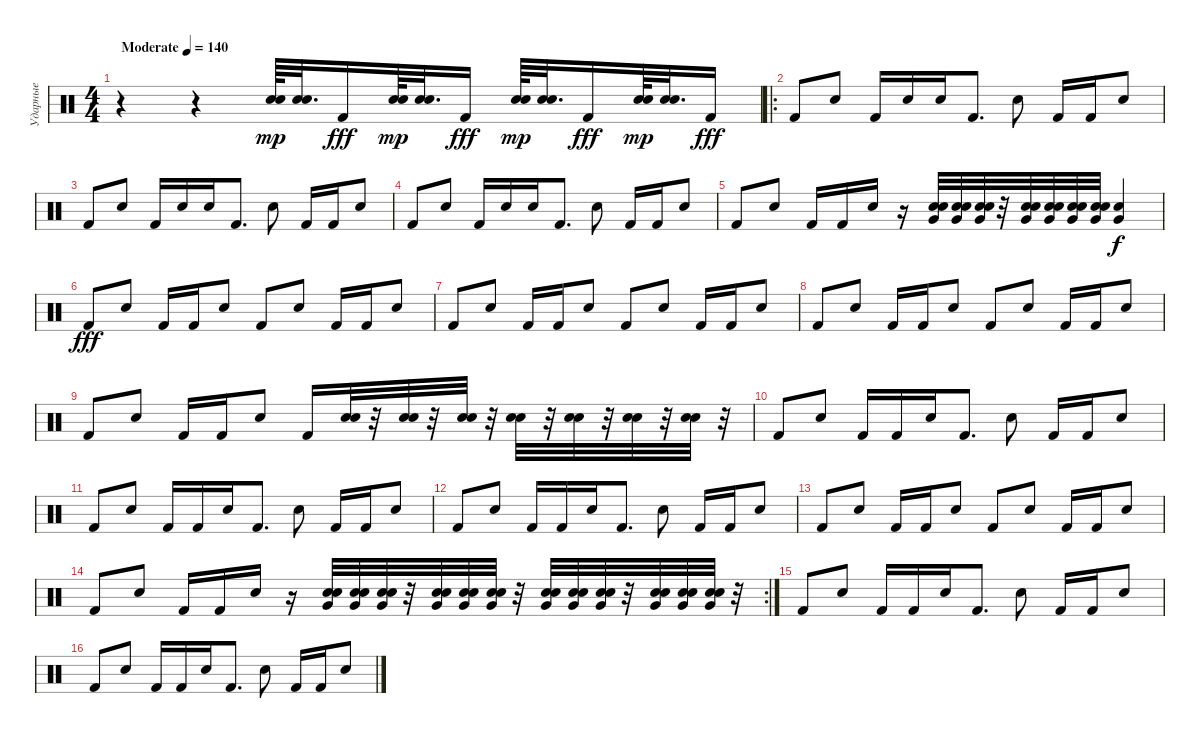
\track ("Ударные" "Ударные") {instrument percussion}
\staff {score}
\articulation defaults
\ts (4 4)
\tempo (140 "Moderate")
\clef neutral
\ks c
r.4{dy mp} r.4 ("Electric Snare (hit)" "Snare (hit) 2").64 ("Electric Snare (hit)" "Snare (hit) 2").32{d} "Kick (hit) 2".16{dy fff} ("Electric Snare (hit)" "Snare (hit) 2").64{dy mp} ("Electric Snare (hit)" "Snare (hit) 2").32{d} "Kick (hit) 2".16{dy fff} ("Electric Snare (hit)" "Snare (hit) 2").64{dy mp} ("Electric Snare (hit)" "Snare (hit) 2").32{d} "Kick (hit) 2".16{dy fff} ("Electric Snare (hit)" "Snare (hit) 2").64{dy mp} ("Electric Snare (hit)" "Snare (hit) 2").32{d} "Kick (hit) 2".16{dy fff} |
\ro "Kick (hit) 2".8 "Electric Snare (hit)".8 "Kick (hit) 2".16 "Electric Snare (hit)".16 "Electric Snare (hit)".16 "Kick (hit) 2".8{d} "Electric Snare (hit)".8 "Kick (hit) 2".16 "Kick (hit) 2".16 "Electric Snare (hit)".8
|
"Kick (hit) 2".8 "Electric Snare (hit)".8 "Kick (hit) 2".16 "Electric Snare (hit)".16 "Electric Snare (hit)".16 "Kick (hit) 2".8{d} "Electric Snare (hit)".8 "Kick (hit) 2".16 "Kick (hit) 2".16 "Electric Snare (hit)".8 |
"Kick (hit) 2".8 "Electric Snare (hit)".8 "Kick (hit) 2".16 "Electric Snare (hit)".16 "Electric Snare (hit)".16 "Kick (hit) 2".8{d} "Electric Snare (hit)".8 "Kick (hit) 2".16 "Kick (hit) 2".16 "Electric Snare (hit)".8 |
"Kick (hit) 2".8 "Electric Snare (hit)".8 "Kick (hit) 2".16 "Kick (hit) 2".16 "Electric Snare (hit)".16 r.16 ("Electric Snare (hit)" "Very Low Tom (hit)" "Snare (hit) 2").32 ("Electric Snare (hit)" "Very Low Tom (hit)" "Snare (hit) 2").32 ("Electric Snare (hit)" "Very Low Tom (hit)" "Snare (hit) 2").32 r.32 ("Electric Snare (hit)" "Very Low Tom (hit)" "Snare (hit) 2").32 ("Electric Snare (hit)" "Very Low Tom (hit)" "Snare (hit) 2").32 ("Electric Snare (hit)" "Very Low Tom (hit)" "Snare (hit) 2").32 ("Electric Snare (hit)" "Very Low Tom (hit)" "Snare (hit) 2").32 ("Very Low Tom (hit)" "Snare (hit) 2").4{dy f} |
"Kick (hit) 2".8{dy fff} "Electric Snare (hit)".8 "Kick (hit) 2".16 "Kick (hit) 2".16 "Electric Snare (hit)".8 "Kick (hit) 2".8 "Electric Snare (hit)".8 "Kick (hit) 2".16 "Kick (hit) 2".16 "Electric Snare (hit)".8 |
"Kick (hit) 2".8 "Electric Snare (hit)".8 "Kick (hit) 2".16 "Kick (hit) 2".16 "Electric Snare (hit)".8 "Kick (hit) 2".8 "Electric Snare (hit)".8 "Kick (hit) 2".16 "Kick (hit) 2".16 "Electric Snare (hit)".8 |
"Kick (hit) 2".8 "Electric Snare (hit)".8 "Kick (hit) 2".16 "Kick (hit) 2".16 "Electric Snare (hit)".8 "Kick (hit) 2".8 "Electric Snare (hit)".8 "Kick (hit) 2".16 "Kick (hit) 2".16 "Electric Snare (hit)".8 |
"Kick (hit) 2".8 "Electric Snare (hit)".8 "Kick (hit) 2".16 "Kick (hit) 2".16 "Electric Snare (hit)".8 "Kick (hit) 2".16 ("Snare (hit) 2" "Electric Snare (hit)").32 r.32 ("Snare (hit) 2" "Electric Snare (hit)").32 r.32 ("Snare (hit) 2" "Electric Snare (hit)").32 r.32 ("Snare (hit) 2" "Electric Snare (hit)").32 r.32 ("Snare (hit) 2" "Electric Snare (hit)").32 r.32 ("Snare (hit) 2" "Electric Snare (hit)").32 r.32 ("Snare (hit) 2" "Electric Snare (hit)").32 r.32 |
"Kick (hit) 2".8 "Electric Snare (hit)".8 "Kick (hit) 2".16 "Kick (hit) 2".16 "Electric Snare (hit)".16 "Kick (hit) 2".8{d} "Electric Snare (hit)".8 "Kick (hit) 2".16 "Kick (hit) 2".16 "Electric Snare (hit)".8 |
"Kick (hit) 2".8 "Electric Snare (hit)".8 "Kick (hit) 2".16 "Kick (hit) 2".16 "Electric Snare (hit)".16 "Kick (hit) 2".8{d} "Electric Snare (hit)".8 "Kick (hit) 2".16 "Kick (hit) 2".16 "Electric Snare (hit)".8 |
"Kick (hit) 2".8 "Electric Snare (hit)".8 "Kick (hit) 2".16 "Kick (hit) 2".16 "Electric Snare (hit)".16 "Kick (hit) 2".8{d} "Electric Snare (hit)".8 "Kick (hit) 2".16 "Kick (hit) 2".16 "Electric Snare (hit)".8 |
"Kick (hit) 2".8 "Electric Snare (hit)".8 "Kick (hit) 2".16 "Kick (hit) 2".16 "Electric Snare (hit)".8 "Kick (hit) 2".8 "Electric Snare (hit)".8 "Kick (hit) 2".16 "Kick (hit) 2".16 "Electric Snare (hit)".8 |
\rc 2 "Kick (hit) 2".8 "Electric Snare (hit)".8 "Kick (hit) 2".16 "Kick (hit) 2".16 "Electric Snare (hit)".16
r.16 ("Electric Snare (hit)" "Very Low Tom (hit)" "Snare (hit) 2").32 ("Electric Snare (hit)" "Very Low Tom (hit)" "Snare (hit) 2").32 ("Electric Snare (hit)" "Very Low Tom (hit)" "Snare (hit) 2").32 r.32 ("Electric Snare (hit)" "Very Low Tom (hit)" "Snare (hit) 2").32 ("Electric Snare (hit)" "Very Low Tom (hit)" "Snare (hit) 2").32 ("Electric Snare (hit)" "Very Low Tom (hit)" "Snare (hit) 2").32 r.32 ("Electric Snare (hit)" "Very Low Tom (hit)" "Snare (hit) 2").32 ("Electric Snare (hit)" "Very Low Tom (hit)" "Snare (hit) 2").32 ("Electric Snare (hit)" "Very Low Tom (hit)" "Snare (hit) 2").32 r.32 ("Electric Snare (hit)" "Very Low Tom (hit)" "Snare (hit) 2").32 ("Electric Snare (hit)" "Very Low Tom (hit)" "Snare (hit) 2").32 ("Electric Snare (hit)" "Very Low Tom (hit)" "Snare (hit) 2").32 r.32 |
"Kick (hit) 2".8 "Electric Snare (hit)".8 "Kick (hit) 2".16 "Kick (hit) 2".16 "Electric Snare (hit)".16 "Kick (hit) 2".8{d} "Electric Snare (hit)".8 "Kick (hit) 2".16 "Kick (hit) 2".16 "Electric Snare (hit)".8 |
"Kick (hit) 2".8 "Electric Snare (hit)".8 "Kick (hit) 2".16 "Kick (hit) 2".16 "Electric Snare (hit)".16 "Kick (hit) 2".8{d} "Electric Snare (hit)".8 "Kick (hit) 2".16 "Kick (hit) 2".16 "Electric Snare (hit)".8
